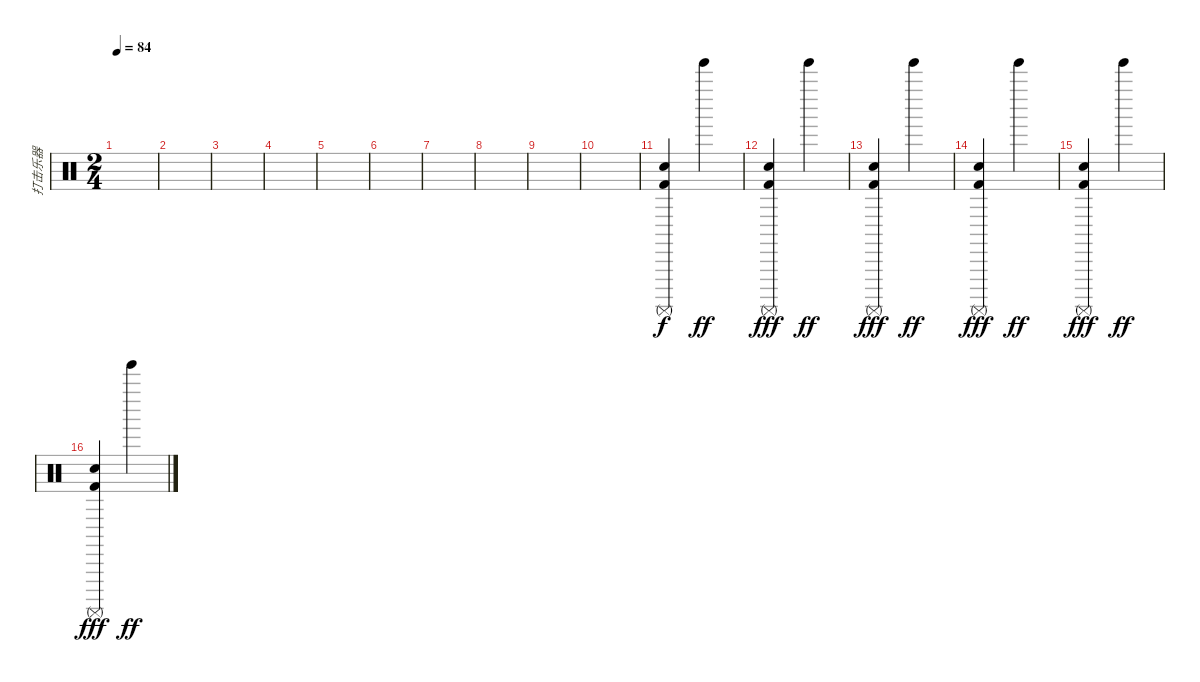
\track ("打击乐器" "打击乐器") {instrument percussion}
\staff {score}
\articulation defaults
\ts (2 4)
\tempo 84
\clef neutral
\ks c
|
|
|
|
|
|
|
|
|
|
("Hand Clap (hit)" "Surdo (mute)" "Kick (hit) 2").4 "Tinkle Bell (hit)".4{dy ff} |
("Hand Clap (hit)" "Surdo (mute)" "Kick (hit) 2").4{dy fff} "Tinkle Bell (hit)".4{dy ff} |
("Hand Clap (hit)" "Surdo (mute)" "Kick (hit) 2").4{dy fff} "Tinkle Bell (hit)".4{dy ff} |
("Hand Clap (hit)" "Surdo (mute)" "Kick (hit) 2").4{dy fff} "Tinkle Bell (hit)".4{dy ff} |
("Hand Clap (hit)" "Surdo (mute)" "Kick (hit) 2").4{dy fff} "Tinkle Bell (hit)".4{dy ff} |
("Hand Clap (hit)" "Surdo (mute)" "Kick (hit) 2").4{dy fff} "Tinkle Bell (hit)".4{dy ff}
